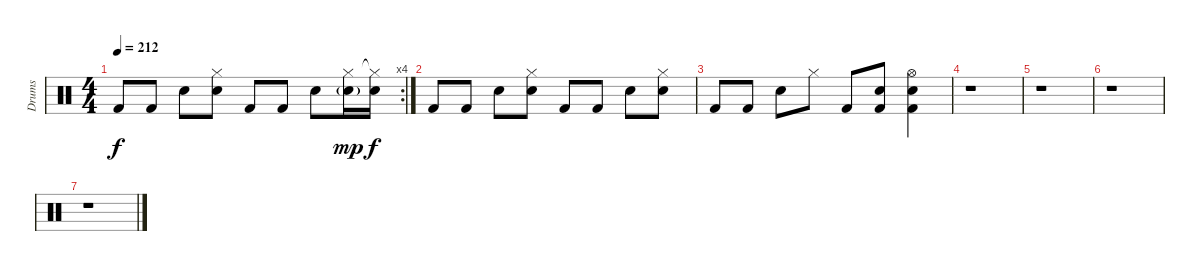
\track ("Drums" "Drums") {instrument percussion}
\staff {score}
\articulation defaults
\rc 4
\ts (4 4)
\tempo 212
\clef neutral
\ks c "Kick (hit) 2".8{dy f} "Kick (hit) 2".8 "Electric Snare (hit)".8
("Hi-Hat (closed)" "Electric Snare (hit)").8 "Kick (hit) 2".8 "Kick (hit) 2".8 "Electric Snare (hit)".8 ("Hi-Hat (closed)" "Electric Snare (hit)"{g}).16{dy mp} ("Hi-Hat (closed)"{t} "Electric Snare (hit)").16{dy f} |
"Kick (hit) 2".8 "Kick (hit) 2".8 "Electric Snare (hit)".8 ("Hi-Hat (closed)" "Electric Snare (hit)").8 "Kick (hit) 2".8 "Kick (hit) 2".8 "Electric Snare (hit)".8 ("Hi-Hat (closed)" "Electric Snare (hit)").8 |
"Kick (hit) 2".8 "Kick (hit) 2".8 "Electric Snare (hit)".8 "Hi-Hat (closed)".8 "Kick (hit) 2".8 ("Electric Snare (hit)" "Kick (hit) 2").8 ("Hi-Hat (open)" "Electric Snare (hit)" "Kick (hit) 2").4 |
r.1 |
r.1 |
r.1 |
r.1
